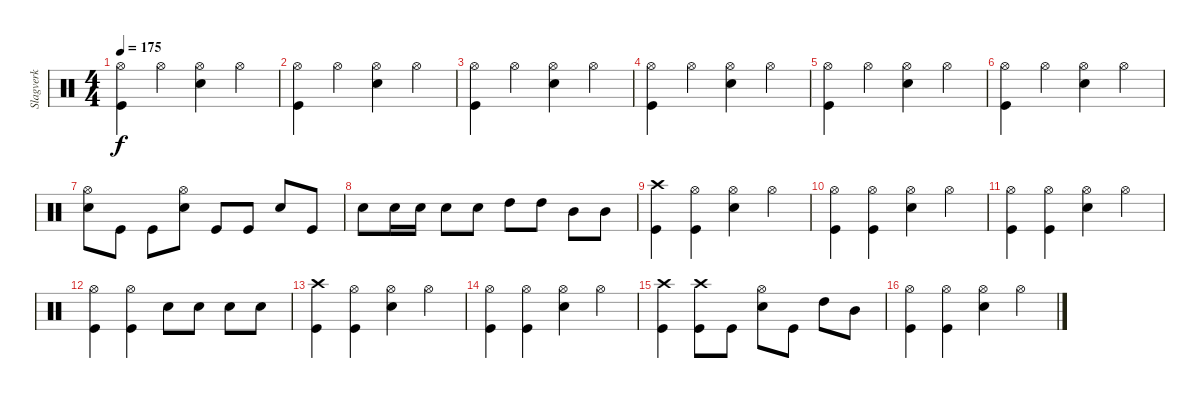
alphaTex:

\track ("Slagverk" "Slagverk") {instrument percussion}
\staff {score}
\articulation defaults
\ts (4 4)
\tempo 175
\clef neutral
\ks c
("Hi-Hat (open)" "Kick (hit)").4{dy f} "Hi-Hat (open)".4 ("Hi-Hat (open)" "Electric Snare (hit)").4 "Hi-Hat (open)".4 |
("Hi-Hat (open)" "Kick (hit)").4 "Hi-Hat (open)".4 ("Hi-Hat (open)" "Electric Snare (hit)").4 "Hi-Hat (open)".4 |
("Hi-Hat (open)" "Kick (hit)").4 "Hi-Hat (open)".4 ("Hi-Hat (open)" "Electric Snare (hit)").4 "Hi-Hat (open)".4 |
("Hi-Hat (open)" "Kick (hit)").4 "Hi-Hat (open)".4 ("Hi-Hat (open)" "Electric Snare (hit)").4 "Hi-Hat (open)".4 |
("Hi-Hat (open)" "Kick (hit)").4 "Hi-Hat (open)".4 ("Hi-Hat (open)" "Electric Snare (hit)").4 "Hi-Hat (open)".4 |
("Hi-Hat (open)" "Kick (hit)").4 "Hi-Hat (open)".4 ("Hi-Hat (open)" "Electric Snare (hit)").4 "Hi-Hat (open)".4 |
("Hi-Hat (open)" "Electric Snare (hit)").8 "Kick (hit)".8 "Kick (hit)".8 ("Hi-Hat (open)" "Electric Snare (hit)").8 "Kick (hit)".8 "Kick (hit)".8 "Electric Snare (hit)".8 "Kick (hit)".8 |
"Electric Snare (hit)".8 "Electric Snare (hit)".16 "Electric Snare (hit)".16 "Electric Snare (hit)".8 "Electric Snare (hit)".8 "High Tom (hit)".8 "High Tom (hit)".8 "Mid Tom (hit)".8 "Mid Tom (hit)".8 |
("Crash high (hit)" "Kick (hit)").4 ("Hi-Hat (open)" "Kick (hit)").4 ("Hi-Hat (open)" "Electric Snare (hit)").4 "Hi-Hat (open)".4 |
("Hi-Hat (open)" "Kick (hit)").4 ("Hi-Hat (open)" "Kick (hit)").4 ("Hi-Hat (open)" "Electric Snare (hit)").4 "Hi-Hat (open)".4 |
("Hi-Hat (open)" "Kick (hit)").4 ("Hi-Hat (open)" "Kick (hit)").4 ("Hi-Hat (open)" "Electric Snare (hit)").4 "Hi-Hat (open)".4 |
("Hi-Hat (open)" "Kick (hit)").4 ("Hi-Hat (open)" "Kick (hit)").4 "Electric Snare (hit)".8 "Electric Snare (hit)".8 "Electric Snare (hit)".8 "Electric Snare (hit)".8 |
("Crash high (hit)" "Kick (hit)").4 ("Hi-Hat (open)" "Kick (hit)").4 ("Hi-Hat (open)" "Electric Snare (hit)").4 "Hi-Hat (open)".4 |
("Hi-Hat (open)" "Kick (hit)").4 ("Hi-Hat (open)" "Kick (hit)").4 ("Hi-Hat (open)" "Electric Snare (hit)").4 "Hi-Hat (open)".4 |
("Crash high (hit)" "Kick (hit)").4 ("Crash high (hit)" "Kick (hit)").8 "Kick (hit)".8 ("Hi-Hat (open)" "Electric Snare (hit)").8 "Kick (hit)".8 "High Tom (hit)".8 "Mid Tom (hit)".8 |
("Hi-Hat (open)" "Kick (hit)").4 ("Hi-Hat (open)" "Kick (hit)").4 ("Hi-Hat (open)" "Electric Snare (hit)").4 "Hi-Hat (open)".4
